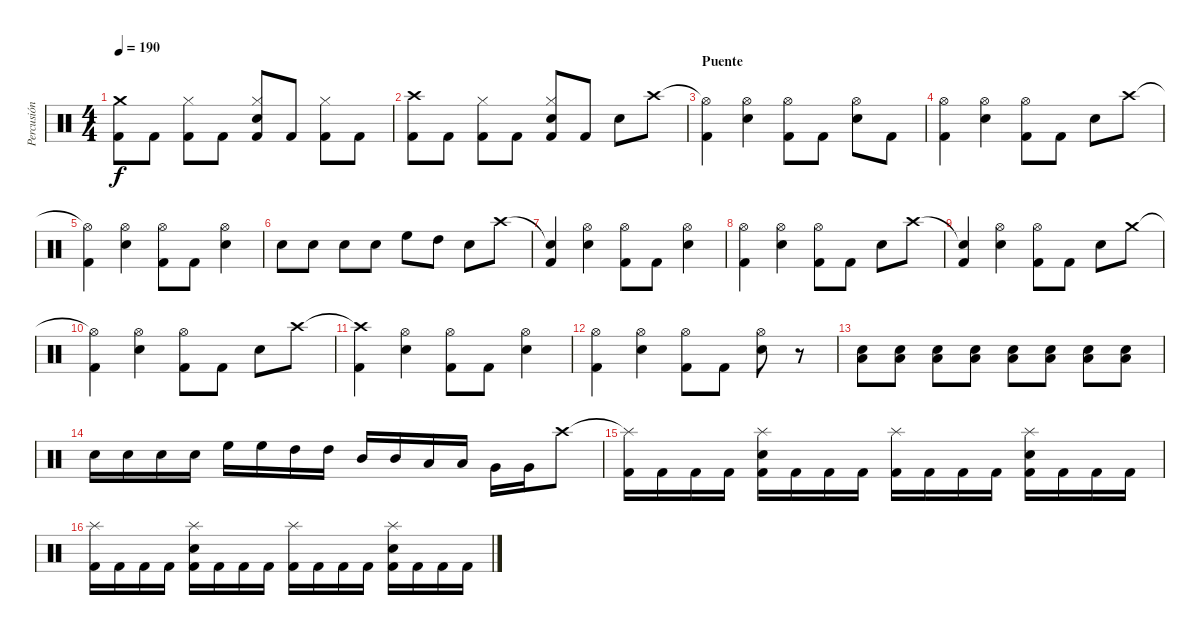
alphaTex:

\track ("Percusión" "Percusión") {instrument percussion}
\staff {score}
\articulation defaults
\ts (4 4)
\tempo 190
\clef neutral
\ks c
("Crash medium (hit)" "Kick (hit) 2").8{dy f} "Kick (hit) 2".8 ("Hi-Hat (closed)" "Kick (hit) 2").8 "Kick (hit) 2".8 ("Hi-Hat (closed)" "Snare (hit) 2" "Kick (hit) 2").8 "Kick (hit) 2".8 ("Hi-Hat (closed)" "Kick (hit) 2").8 "Kick (hit) 2".8 |
("Crash high (hit)" "Kick (hit) 2").8 "Kick (hit) 2".8 ("Hi-Hat (closed)" "Kick (hit) 2").8 "Kick (hit) 2".8 ("Hi-Hat (closed)" "Snare (hit) 2" "Kick (hit) 2").8 "Kick (hit) 2".8 "Snare (hit) 2".8 "Crash high (hit)".8 |
\section ("" "Puente")
("Hi-Hat (open)"{t} "Kick (hit) 2").4 ("Hi-Hat (open)" "Snare (hit) 2").4 ("Hi-Hat (open)" "Kick (hit) 2").8 "Kick (hit) 2".8 ("Hi-Hat (open)" "Snare (hit) 2").8 "Kick (hit) 2".8 |
("Hi-Hat (open)" "Kick (hit) 2").4 ("Hi-Hat (open)" "Snare (hit) 2").4 ("Hi-Hat (open)" "Kick (hit) 2").8 "Kick (hit) 2".8 "Snare (hit) 2".8 "Crash high (hit)".8 |
("Hi-Hat (open)"{t} "Kick (hit) 2").4 ("Hi-Hat (open)" "Snare (hit) 2").4 ("Hi-Hat (open)" "Kick (hit) 2").8 "Kick (hit) 2".8 ("Hi-Hat (open)" "Snare (hit) 2").4 |
"Snare (hit) 2".8 "Snare (hit) 2".8 "Snare (hit) 2".8 "Snare (hit) 2".8 "High Floor Tom (hit)".8 "High Tom (hit)".8 "Snare (hit) 2".8 "Crash high (hit)".8 |
("Snare (hit)"{t} "Kick (hit) 2").4 ("Hi-Hat (open)" "Snare (hit) 2").4 ("Hi-Hat (open)" "Kick (hit) 2").8 "Kick (hit) 2".8 ("Hi-Hat (open)" "Snare (hit) 2").4 |
("Hi-Hat (open)" "Kick (hit) 2").4 ("Hi-Hat (open)" "Snare (hit) 2").4 ("Hi-Hat (open)" "Kick (hit) 2").8 "Kick (hit) 2".8 "Snare (hit) 2".8 "Crash high (hit)".8 |
("Snare (hit)"{t} "Kick (hit) 2").4 ("Hi-Hat (open)" "Snare (hit) 2").4 ("Hi-Hat (open)" "Kick (hit) 2").8 "Kick (hit) 2".8 "Snare (hit) 2".8 "Crash medium (hit)".8 |
("Hi-Hat (open)"{t} "Kick (hit) 2").4 ("Hi-Hat (open)" "Snare (hit) 2").4 ("Hi-Hat (open)" "Kick (hit) 2").8 "Kick (hit) 2".8 "Snare (hit) 2".8 "Crash high (hit)".8 |
("Crash high (hit)"{t} "Kick (hit) 2").4 ("Hi-Hat (open)" "Snare (hit) 2").4 ("Hi-Hat (open)" "Kick (hit) 2").8 "Kick (hit) 2".8 ("Hi-Hat (open)" "Snare (hit) 2").4 |
("Hi-Hat (open)" "Kick (hit) 2").4 ("Hi-Hat (open)" "Snare (hit) 2").4 ("Hi-Hat (open)" "Kick (hit) 2").8 "Kick (hit) 2".8 ("Hi-Hat (open)" "Snare (hit) 2").8 r.8{volume 0} |
("Snare (hit) 2" "Low Floor Tom (hit)").8{volume 13} ("Snare (hit) 2" "Low Floor Tom (hit)").8 ("Snare (hit) 2" "Low Floor Tom (hit)").8 ("Snare (hit) 2" "Low Floor Tom (hit)").8 ("Snare (hit) 2" "Low Floor Tom (hit)").8 ("Snare (hit) 2" "Low Floor Tom (hit)").8 ("Snare (hit) 2" "Low Floor Tom (hit)").8 ("Snare (hit) 2" "Low Floor Tom (hit)").8 |
"Snare (hit) 2".16 "Snare (hit) 2".16 "Snare (hit) 2".16 "Snare (hit) 2".16 "High Floor Tom (hit)".16 "High Floor Tom (hit)".16 "High Tom (hit)".16 "High Tom (hit)".16 "Mid Tom (hit)".16 "Mid Tom (hit)".16 "Low Tom (hit)".16 "Low Tom (hit)".16 "Very Low Tom (hit)".16 "Very Low Tom (hit)".16 "Crash high (hit)".8 |
("Splash (hit)"{t} "Kick (hit) 2").16 "Kick (hit) 2".16 "Kick (hit) 2".16 "Kick (hit) 2".16 ("Splash (hit)" "Snare (hit) 2" "Kick (hit) 2").16 "Kick (hit) 2".16 "Kick (hit) 2".16 "Kick (hit) 2".16 ("Splash (hit)" "Kick (hit) 2").16 "Kick (hit) 2".16 "Kick (hit) 2".16 "Kick (hit) 2".16 ("Splash (hit)" "Snare (hit) 2" "Kick (hit) 2").16 "Kick (hit) 2".16 "Kick (hit) 2".16 "Kick (hit) 2".16 |
("Splash (hit)" "Kick (hit) 2").16 "Kick (hit) 2".16 "Kick (hit) 2".16 "Kick (hit) 2".16 ("Splash (hit)" "Snare (hit) 2" "Kick (hit) 2").16 "Kick (hit) 2".16 "Kick (hit) 2".16 "Kick (hit) 2".16 ("Splash (hit)" "Kick (hit) 2").16 "Kick (hit) 2".16 "Kick (hit) 2".16 "Kick (hit) 2".16 ("Splash (hit)" "Snare (hit) 2" "Kick (hit) 2").16 "Kick (hit) 2".16 "Kick (hit) 2".16 "Kick (hit) 2".16
